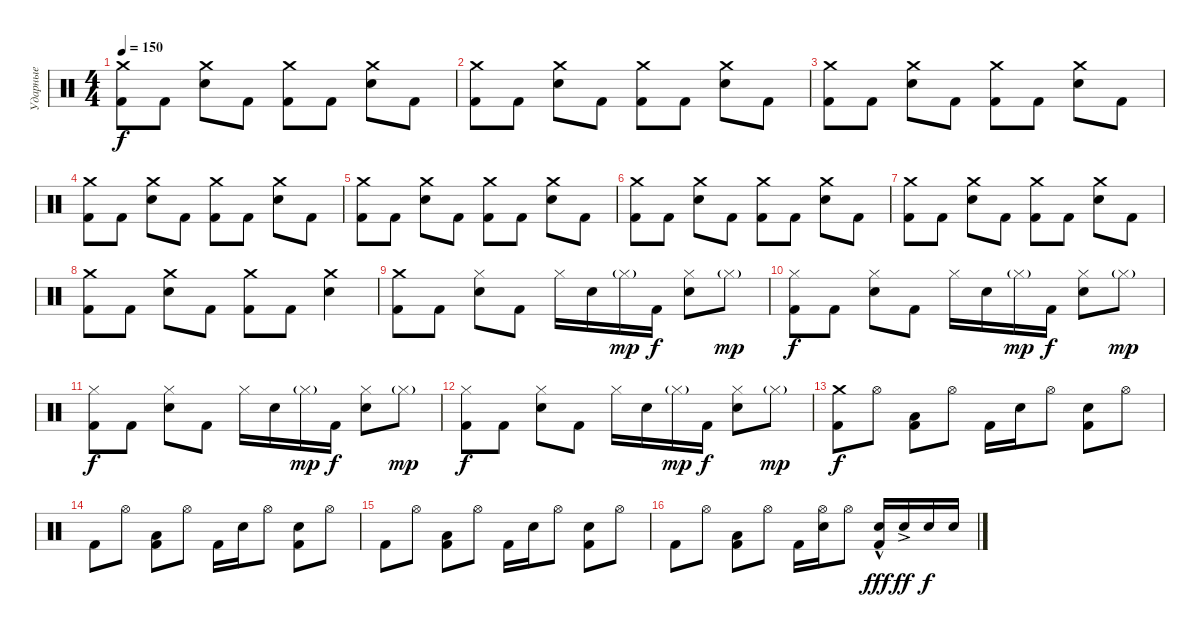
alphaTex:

\track ("Ударные" "Ударные") {instrument percussion}
\staff {score}
\articulation defaults
\ts (4 4)
\tempo 150
\clef neutral
\ks c
("Crash medium (hit)" "Kick (hit) 2").8{dy f} "Kick (hit) 2".8 ("Crash medium (hit)" "Snare (hit) 2").8 "Kick (hit) 2".8 ("Crash medium (hit)" "Kick (hit) 2").8 "Kick (hit) 2".8 ("Crash medium (hit)" "Snare (hit) 2").8 "Kick (hit) 2".8 |
("Crash medium (hit)" "Kick (hit) 2").8 "Kick (hit) 2".8 ("Crash medium (hit)" "Snare (hit) 2").8 "Kick (hit) 2".8 ("Crash medium (hit)" "Kick (hit) 2").8 "Kick (hit) 2".8 ("Crash medium (hit)" "Snare (hit) 2").8 "Kick (hit) 2".8 |
("Crash medium (hit)" "Kick (hit) 2").8 "Kick (hit) 2".8 ("Crash medium (hit)" "Snare (hit) 2").8 "Kick (hit) 2".8 ("Crash medium (hit)" "Kick (hit) 2").8 "Kick (hit) 2".8 ("Crash medium (hit)" "Snare (hit) 2").8 "Kick (hit) 2".8 |
("Crash medium (hit)" "Kick (hit) 2").8 "Kick (hit) 2".8 ("Crash medium (hit)" "Snare (hit) 2").8 "Kick (hit) 2".8 ("Crash medium (hit)" "Kick (hit) 2").8 "Kick (hit) 2".8 ("Crash medium (hit)" "Snare (hit) 2").8 "Kick (hit) 2".8 |
("Crash medium (hit)" "Kick (hit) 2").8 "Kick (hit) 2".8 ("Crash medium (hit)" "Snare (hit) 2").8 "Kick (hit) 2".8 ("Crash medium (hit)" "Kick (hit) 2").8 "Kick (hit) 2".8 ("Crash medium (hit)" "Snare (hit) 2").8 "Kick (hit) 2".8 |
("Crash medium (hit)" "Kick (hit) 2").8 "Kick (hit) 2".8 ("Crash medium (hit)" "Snare (hit) 2").8 "Kick (hit) 2".8 ("Crash medium (hit)" "Kick (hit) 2").8 "Kick (hit) 2".8 ("Crash medium (hit)" "Snare (hit) 2").8 "Kick (hit) 2".8 |
("Crash medium (hit)" "Kick (hit) 2").8 "Kick (hit) 2".8 ("Crash medium (hit)" "Snare (hit) 2").8 "Kick (hit) 2".8 ("Crash medium (hit)" "Kick (hit) 2").8 "Kick (hit) 2".8 ("Crash medium (hit)" "Snare (hit) 2").8 "Kick (hit) 2".8 |
("Crash medium (hit)" "Kick (hit) 2").8 "Kick (hit) 2".8 ("Crash medium (hit)" "Snare (hit) 2").8 "Kick (hit) 2".8 ("Crash medium (hit)" "Kick (hit) 2").8 "Kick (hit) 2".8 ("Crash medium (hit)" "Snare (hit) 2").4 |
("Crash medium (hit)" "Kick (hit) 2").8 "Kick (hit) 2".8 ("Snare (hit) 2" "Hi-Hat (closed)").8 "Kick (hit) 2".8 "Hi-Hat (closed)".16 "Snare (hit) 2".16 "Hi-Hat (closed)"{g}.16{dy mp} "Kick (hit) 2".16{dy f} ("Snare (hit) 2" "Hi-Hat (closed)").8 "Hi-Hat (closed)"{g}.8{dy mp} |
("Hi-Hat (closed)" "Kick (hit) 2").8{dy f} "Kick (hit) 2".8 ("Snare (hit) 2" "Hi-Hat (closed)").8 "Kick (hit) 2".8 "Hi-Hat (closed)".16 "Snare (hit) 2".16 "Hi-Hat (closed)"{g}.16{dy mp} "Kick (hit) 2".16{dy f} ("Snare (hit) 2" "Hi-Hat (closed)").8 "Hi-Hat (closed)"{g}.8{dy mp} |
("Hi-Hat (closed)" "Kick (hit) 2").8{dy f} "Kick (hit) 2".8 ("Snare (hit) 2" "Hi-Hat (closed)").8 "Kick (hit) 2".8 "Hi-Hat (closed)".16 "Snare (hit) 2".16 "Hi-Hat (closed)"{g}.16{dy mp} "Kick (hit) 2".16{dy f} ("Snare (hit) 2" "Hi-Hat (closed)").8 "Hi-Hat (closed)"{g}.8{dy mp} |
("Hi-Hat (closed)" "Kick (hit) 2").8{dy f} "Kick (hit) 2".8 ("Snare (hit) 2" "Hi-Hat (closed)").8 "Kick (hit) 2".8 "Hi-Hat (closed)".16 "Snare (hit) 2".16 "Hi-Hat (closed)"{g}.16{dy mp} "Kick (hit) 2".16{dy f} ("Snare (hit) 2" "Hi-Hat (closed)").8 "Hi-Hat (closed)"{g}.8{dy mp} |
("Crash medium (hit)" "Kick (hit) 2").8{dy f} "Hi-Hat (open)".8 ("Low Tom (hit)" "Kick (hit) 2").8 "Hi-Hat (open)".8 "Kick (hit) 2".16 "Snare (hit) 2".16 "Hi-Hat (open)".8 ("Snare (hit) 2" "Kick (hit) 2").8 "Hi-Hat (open)".8 |
"Kick (hit) 2".8 "Hi-Hat (open)".8 ("Low Tom (hit)" "Kick (hit) 2").8 "Hi-Hat (open)".8 "Kick (hit) 2".16 "Snare (hit) 2".16 "Hi-Hat (open)".8 ("Snare (hit) 2" "Kick (hit) 2").8 "Hi-Hat (open)".8 |
"Kick (hit) 2".8 "Hi-Hat (open)".8 ("Low Tom (hit)" "Kick (hit) 2").8 "Hi-Hat (open)".8 "Kick (hit) 2".16 "Snare (hit) 2".16 "Hi-Hat (open)".8 ("Snare (hit) 2" "Kick (hit) 2").8 "Hi-Hat (open)".8 |
"Kick (hit) 2".8 "Hi-Hat (open)".8 ("Low Tom (hit)" "Kick (hit) 2").8 "Hi-Hat (open)".8 "Kick (hit) 2".16 ("Snare (hit) 2" "Hi-Hat (open)").16 "Hi-Hat (open)".8 ("Snare (hit) 2"{hac} "Kick (hit) 2").16{dy fff} "Snare (hit) 2"{ac}.16{dy ff} "Snare (hit) 2".16{dy f} "Snare (hit) 2".16
